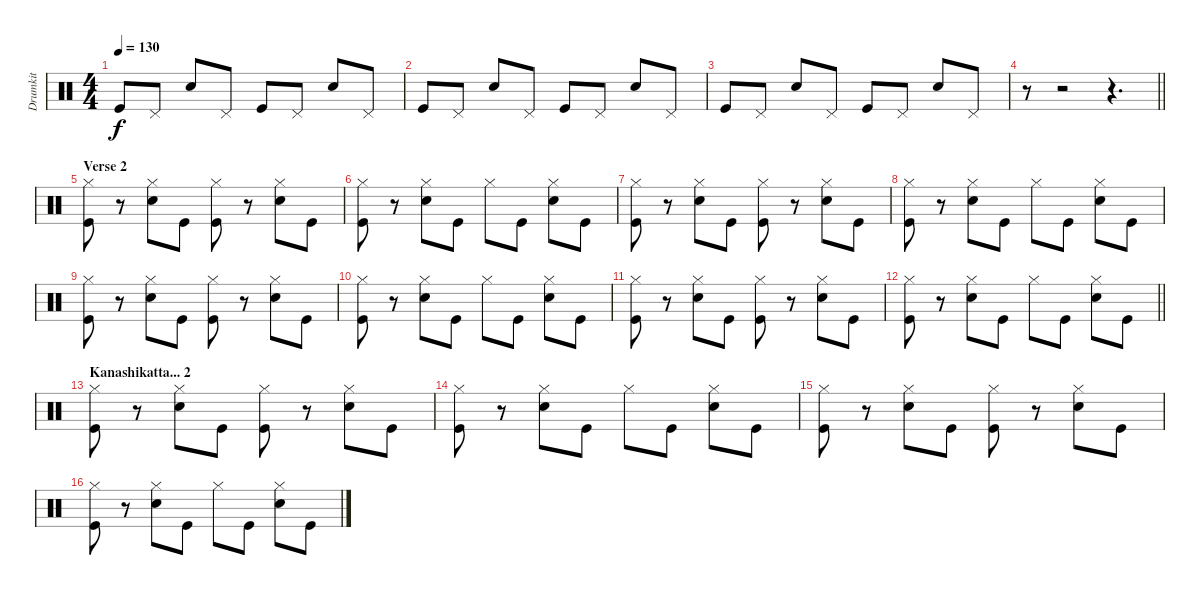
\track ("Drumkit" "Drumkit") {instrument percussion}
\staff {score}
\articulation defaults
\ts (4 4)
\tempo 130
\clef neutral
\ks c "Kick (hit)".8{dy f} "Pedal Hi-Hat (hit)".8 "Snare (hit) 2".8 "Pedal Hi-Hat (hit)".8 "Kick (hit)".8 "Pedal Hi-Hat (hit)".8 "Snare (hit) 2".8 "Pedal Hi-Hat (hit)".8
|
"Kick (hit)".8 "Pedal Hi-Hat (hit)".8 "Snare (hit) 2".8 "Pedal Hi-Hat (hit)".8 "Kick (hit)".8 "Pedal Hi-Hat (hit)".8 "Snare (hit) 2".8 "Pedal Hi-Hat (hit)".8 |
"Kick (hit)".8 "Pedal Hi-Hat (hit)".8 "Snare (hit) 2".8 "Pedal Hi-Hat (hit)".8 "Kick (hit)".8 "Pedal Hi-Hat (hit)".8 "Snare (hit) 2".8 "Pedal Hi-Hat (hit)".8 |
\barLineRight lightlight
r.8 r.2 r.4{d} |
\section ("" "Verse 2")
("Kick (hit)" "Hi-Hat (closed)").8 r.8 ("Snare (hit) 2" "Hi-Hat (closed)").8 "Kick (hit)".8 ("Kick (hit)" "Hi-Hat (closed)").8 r.8 ("Snare (hit) 2" "Hi-Hat (closed)").8 "Kick (hit)".8 |
("Kick (hit)" "Hi-Hat (closed)").8 r.8 ("Snare (hit) 2" "Hi-Hat (closed)").8 "Kick (hit)".8 "Hi-Hat (closed)".8 "Kick (hit)".8 ("Snare (hit) 2" "Hi-Hat (closed)").8 "Kick (hit)".8 |
("Kick (hit)" "Hi-Hat (closed)").8 r.8 ("Snare (hit) 2" "Hi-Hat (closed)").8 "Kick (hit)".8 ("Kick (hit)" "Hi-Hat (closed)").8 r.8 ("Snare (hit) 2" "Hi-Hat (closed)").8 "Kick (hit)".8 |
("Kick (hit)" "Hi-Hat (closed)").8 r.8 ("Snare (hit) 2" "Hi-Hat (closed)").8 "Kick (hit)".8 "Hi-Hat (closed)".8 "Kick (hit)".8 ("Snare (hit) 2" "Hi-Hat (closed)").8 "Kick (hit)".8 |
("Kick (hit)" "Hi-Hat (closed)").8 r.8 ("Snare (hit) 2" "Hi-Hat (closed)").8 "Kick (hit)".8 ("Kick (hit)" "Hi-Hat (closed)").8 r.8 ("Snare (hit) 2" "Hi-Hat (closed)").8 "Kick (hit)".8 |
("Kick (hit)" "Hi-Hat (closed)").8 r.8 ("Snare (hit) 2" "Hi-Hat (closed)").8 "Kick (hit)".8 "Hi-Hat (closed)".8 "Kick (hit)".8 ("Snare (hit) 2" "Hi-Hat (closed)").8 "Kick (hit)".8 |
("Kick (hit)" "Hi-Hat (closed)").8 r.8 ("Snare (hit) 2" "Hi-Hat (closed)").8 "Kick (hit)".8 ("Kick (hit)" "Hi-Hat (closed)").8 r.8 ("Snare (hit) 2" "Hi-Hat (closed)").8 "Kick (hit)".8 |
\barLineRight lightlight
("Kick (hit)" "Hi-Hat (closed)").8 r.8 ("Snare (hit) 2" "Hi-Hat (closed)").8 "Kick (hit)".8 "Hi-Hat (closed)".8 "Kick (hit)".8 ("Snare (hit) 2" "Hi-Hat (closed)").8 "Kick (hit)".8 |
\section ("" "Kanashikatta... 2")
("Kick (hit)" "Hi-Hat (closed)").8 r.8 ("Snare (hit) 2" "Hi-Hat (closed)").8 "Kick (hit)".8 ("Kick (hit)" "Hi-Hat (closed)").8 r.8 ("Snare (hit) 2" "Hi-Hat (closed)").8 "Kick (hit)".8 |
("Kick (hit)" "Hi-Hat (closed)").8 r.8 ("Snare (hit) 2" "Hi-Hat (closed)").8 "Kick (hit)".8 "Hi-Hat (closed)".8 "Kick (hit)".8 ("Snare (hit) 2" "Hi-Hat (closed)").8 "Kick (hit)".8 |
("Kick (hit)" "Hi-Hat (closed)").8 r.8 ("Snare (hit) 2" "Hi-Hat (closed)").8 "Kick (hit)".8 ("Kick (hit)" "Hi-Hat (closed)").8 r.8 ("Snare (hit) 2" "Hi-Hat (closed)").8 "Kick (hit)".8 |
("Kick (hit)" "Hi-Hat (closed)").8 r.8 ("Snare (hit) 2" "Hi-Hat (closed)").8 "Kick (hit)".8 "Hi-Hat (closed)".8 "Kick (hit)".8 ("Snare (hit) 2" "Hi-Hat (closed)").8 "Kick (hit)".8
